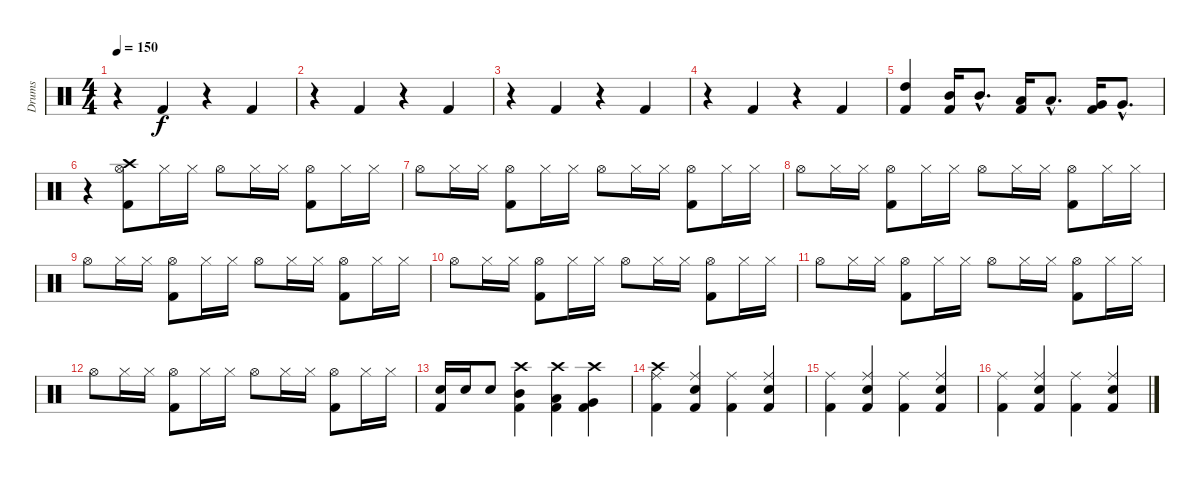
\track ("Drums" "Drums") {instrument percussion}
\staff {score}
\articulation defaults
\ts (4 4)
\tempo 150
\clef neutral
\ks c
r.4{dy f} "Kick (hit) 2".4 r.4 "Kick (hit) 2".4 |
r.4 "Kick (hit) 2".4 r.4 "Kick (hit) 2".4 |
r.4 "Kick (hit) 2".4 r.4 "Kick (hit) 2".4 |
r.4 "Kick (hit) 2".4 r.4 "Kick (hit) 2".4 |
("High Tom (hit)" "Kick (hit) 2").4 ("Mid Tom (hit)" "Kick (hit) 2").16 "Mid Tom (hit)"{hac}.8{d} ("Low Tom (hit)" "Kick (hit) 2").16 "Low Tom (hit)"{hac}.8{d} ("Very Low Tom (hit)" "Kick (hit) 2").16 "Very Low Tom (hit)"{hac}.8{d} |
r.4 ("Crash high (hit)" "Hi-Hat (open)" "Kick (hit) 2").8 "Hi-Hat (closed)".16 "Hi-Hat (closed)".16 "Hi-Hat (open)".8 "Hi-Hat (closed)".16 "Hi-Hat (closed)".16 ("Hi-Hat (open)" "Kick (hit) 2").8 "Hi-Hat (closed)".16 "Hi-Hat (closed)".16 |
"Hi-Hat (open)".8 "Hi-Hat (closed)".16 "Hi-Hat (closed)".16 ("Hi-Hat (open)" "Kick (hit) 2").8 "Hi-Hat (closed)".16 "Hi-Hat (closed)".16 "Hi-Hat (open)".8 "Hi-Hat (closed)".16 "Hi-Hat (closed)".16 ("Hi-Hat (open)" "Kick (hit) 2").8 "Hi-Hat (closed)".16 "Hi-Hat (closed)".16 |
"Hi-Hat (open)".8 "Hi-Hat (closed)".16 "Hi-Hat (closed)".16 ("Hi-Hat (open)" "Kick (hit) 2").8 "Hi-Hat (closed)".16 "Hi-Hat (closed)".16 "Hi-Hat (open)".8 "Hi-Hat (closed)".16 "Hi-Hat (closed)".16 ("Hi-Hat (open)" "Kick (hit) 2").8 "Hi-Hat (closed)".16 "Hi-Hat (closed)".16 |
"Hi-Hat (open)".8 "Hi-Hat (closed)".16 "Hi-Hat (closed)".16 ("Hi-Hat (open)" "Kick (hit) 2").8 "Hi-Hat (closed)".16 "Hi-Hat (closed)".16 "Hi-Hat (open)".8 "Hi-Hat (closed)".16 "Hi-Hat (closed)".16 ("Hi-Hat (open)" "Kick (hit) 2").8 "Hi-Hat (closed)".16 "Hi-Hat (closed)".16 |
"Hi-Hat (open)".8 "Hi-Hat (closed)".16 "Hi-Hat (closed)".16 ("Hi-Hat (open)" "Kick (hit) 2").8 "Hi-Hat (closed)".16 "Hi-Hat (closed)".16 "Hi-Hat (open)".8 "Hi-Hat (closed)".16 "Hi-Hat (closed)".16 ("Hi-Hat (open)" "Kick (hit) 2").8 "Hi-Hat (closed)".16 "Hi-Hat (closed)".16 |
"Hi-Hat (open)".8 "Hi-Hat (closed)".16 "Hi-Hat (closed)".16 ("Hi-Hat (open)" "Kick (hit) 2").8 "Hi-Hat (closed)".16 "Hi-Hat (closed)".16 "Hi-Hat (open)".8 "Hi-Hat (closed)".16 "Hi-Hat (closed)".16 ("Hi-Hat (open)" "Kick (hit) 2").8 "Hi-Hat (closed)".16 "Hi-Hat (closed)".16 |
"Hi-Hat (open)".8 "Hi-Hat (closed)".16 "Hi-Hat (closed)".16 ("Hi-Hat (open)" "Kick (hit) 2").8 "Hi-Hat (closed)".16 "Hi-Hat (closed)".16 "Hi-Hat (open)".8 "Hi-Hat (closed)".16 "Hi-Hat (closed)".16 ("Hi-Hat (open)" "Kick (hit) 2").8 "Hi-Hat (closed)".16 "Hi-Hat (closed)".16 |
("Snare (hit) 2" "Kick (hit) 2").16 "Snare (hit) 2".16 "Snare (hit) 2".8 ("Crash high (hit)" "Mid Tom (hit)" "Kick (hit) 2").4 ("Crash high (hit)" "Low Tom (hit)" "Kick (hit) 2").4 ("Crash high (hit)" "Very Low Tom (hit)" "Kick (hit) 2").4 |
("Crash high (hit)" "Ride (middle)" "Kick (hit) 2").4 ("Ride (middle)" "Electric Snare (hit)" "Kick (hit) 2").4 ("Ride (middle)" "Kick (hit) 2").4 ("Ride (middle)" "Electric Snare (hit)" "Kick (hit) 2").4 |
("Ride (middle)" "Kick (hit) 2").4 ("Ride (middle)" "Electric Snare (hit)" "Kick (hit) 2").4 ("Ride (middle)" "Kick (hit) 2").4 ("Ride (middle)" "Electric Snare (hit)" "Kick (hit) 2").4 |
("Ride (middle)" "Kick (hit) 2").4 ("Ride (middle)" "Electric Snare (hit)" "Kick (hit) 2").4 ("Ride (middle)" "Kick (hit) 2").4 ("Ride (middle)" "Electric Snare (hit)" "Kick (hit) 2").4
